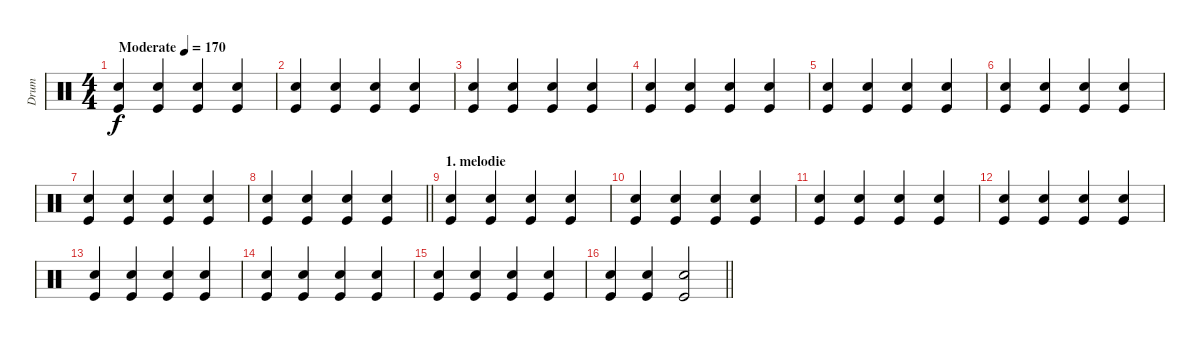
\track ("Drum" "Drum") {instrument percussion}
\staff {score}
\articulation defaults
\ts (4 4)
\tempo (170 "Moderate")
\clef neutral
\ks c
("Kick (hit)" "Snare (hit) 2").4{dy f} ("Kick (hit)" "Snare (hit) 2").4 ("Kick (hit)" "Snare (hit) 2").4 ("Kick (hit)" "Snare (hit) 2").4 |
("Kick (hit)" "Snare (hit) 2").4 ("Kick (hit)" "Snare (hit) 2").4 ("Kick (hit)" "Snare (hit) 2").4 ("Kick (hit)" "Snare (hit) 2").4 |
("Kick (hit)" "Snare (hit) 2").4 ("Kick (hit)" "Snare (hit) 2").4 ("Kick (hit)" "Snare (hit) 2").4 ("Kick (hit)" "Snare (hit) 2").4 |
("Kick (hit)" "Snare (hit) 2").4 ("Kick (hit)" "Snare (hit) 2").4 ("Kick (hit)" "Snare (hit) 2").4 ("Kick (hit)" "Snare (hit) 2").4 |
("Kick (hit)" "Snare (hit) 2").4 ("Kick (hit)" "Snare (hit) 2").4 ("Kick (hit)" "Snare (hit) 2").4 ("Kick (hit)" "Snare (hit) 2").4 |
("Kick (hit)" "Snare (hit) 2").4 ("Kick (hit)" "Snare (hit) 2").4 ("Kick (hit)" "Snare (hit) 2").4 ("Kick (hit)" "Snare (hit) 2").4 |
("Kick (hit)" "Snare (hit) 2").4 ("Kick (hit)" "Snare (hit) 2").4 ("Kick (hit)" "Snare (hit) 2").4 ("Kick (hit)" "Snare (hit) 2").4 |
\barLineRight lightlight
("Kick (hit)" "Snare (hit) 2").4 ("Kick (hit)" "Snare (hit) 2").4 ("Kick (hit)" "Snare (hit) 2").4 ("Kick (hit)" "Snare (hit) 2").4 |
\section ("" "1. melodie")
("Kick (hit)" "Snare (hit) 2").4 ("Kick (hit)" "Snare (hit) 2").4 ("Kick (hit)" "Snare (hit) 2").4 ("Kick (hit)" "Snare (hit) 2").4 |
("Kick (hit)" "Snare (hit) 2").4 ("Kick (hit)" "Snare (hit) 2").4 ("Kick (hit)" "Snare (hit) 2").4 ("Kick (hit)" "Snare (hit) 2").4 |
("Kick (hit)" "Snare (hit) 2").4 ("Kick (hit)" "Snare (hit) 2").4 ("Kick (hit)" "Snare (hit) 2").4 ("Kick (hit)" "Snare (hit) 2").4 |
("Kick (hit)" "Snare (hit) 2").4 ("Kick (hit)" "Snare (hit) 2").4 ("Kick (hit)" "Snare (hit) 2").4 ("Kick (hit)" "Snare (hit) 2").4 |
("Kick (hit)" "Snare (hit) 2").4 ("Kick (hit)" "Snare (hit) 2").4 ("Kick (hit)" "Snare (hit) 2").4 ("Kick (hit)" "Snare (hit) 2").4 |
("Kick (hit)" "Snare (hit) 2").4 ("Kick (hit)" "Snare (hit) 2").4 ("Kick (hit)" "Snare (hit) 2").4 ("Kick (hit)" "Snare (hit) 2").4 |
("Kick (hit)" "Snare (hit) 2").4 ("Kick (hit)" "Snare (hit) 2").4 ("Kick (hit)" "Snare (hit) 2").4 ("Kick (hit)" "Snare (hit) 2").4 |
\barLineRight lightlight
("Kick (hit)" "Snare (hit) 2").4 ("Kick (hit)" "Snare (hit) 2").4 ("Kick (hit)" "Snare (hit) 2").2
